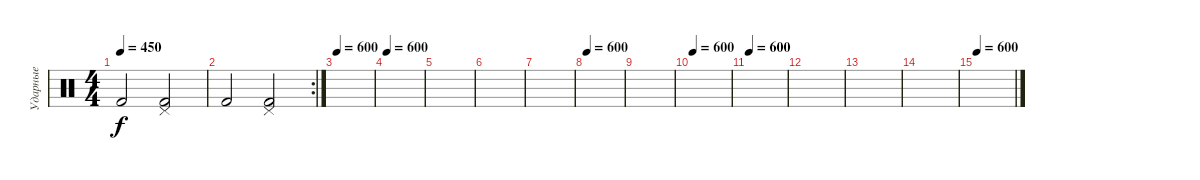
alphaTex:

\track ("Ударные" "Ударные") {instrument percussion}
\staff {score}
\articulation defaults
\ts (4 4)
\tempo 450
\clef neutral
\ks c "Kick (hit) 2".2{dy f}
("Kick (hit) 2" "Pedal Hi-Hat (hit)").2 |
\rc 2 "Kick (hit) 2".2
("Kick (hit) 2" "Pedal Hi-Hat (hit)").2 |
\tempo 600
|
\tempo 600
|
|
|
|
\tempo 600
|
|
\tempo 600
|
\tempo 600
|
|
|
|
\tempo 600
